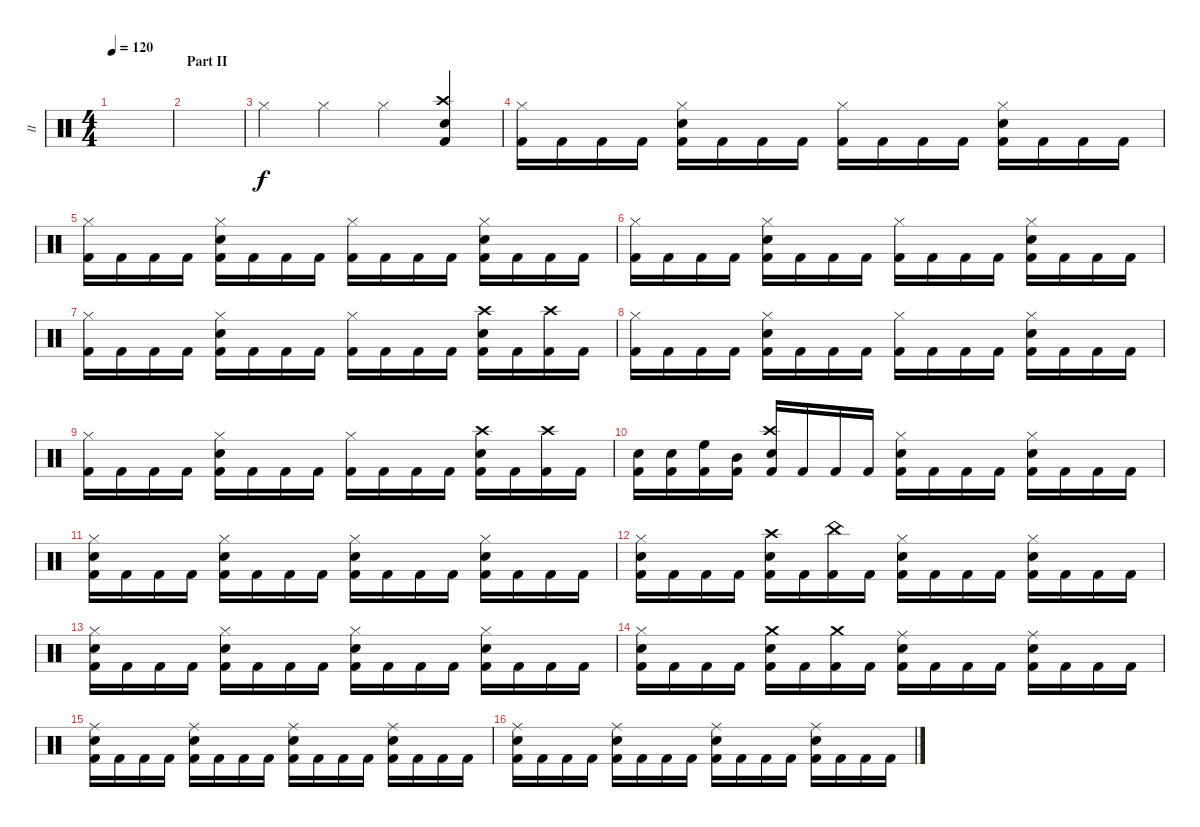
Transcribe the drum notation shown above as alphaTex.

\track ("II" "II") {instrument percussion}
\staff {score}
\articulation defaults
\ts (4 4)
\tempo 120
\clef neutral
\ks c
|
\section ("" "Part II")
|
"Hi-Hat (closed)".4 "Hi-Hat (closed)".4 "Hi-Hat (closed)".4 ("Kick (hit) 2" "Crash high (hit)" "Snare (hit) 2").4 |
("Kick (hit) 2" "Hi-Hat (closed)").16 "Kick (hit) 2".16 "Kick (hit) 2".16 "Kick (hit) 2".16 ("Kick (hit) 2" "Hi-Hat (closed)" "Snare (hit) 2").16 "Kick (hit) 2".16 "Kick (hit) 2".16 "Kick (hit) 2".16 ("Kick (hit) 2" "Hi-Hat (closed)").16 "Kick (hit) 2".16 "Kick (hit) 2".16 "Kick (hit) 2".16 ("Kick (hit) 2" "Hi-Hat (closed)" "Snare (hit) 2").16 "Kick (hit) 2".16 "Kick (hit) 2".16 "Kick (hit) 2".16 |
("Kick (hit) 2" "Hi-Hat (closed)").16 "Kick (hit) 2".16 "Kick (hit) 2".16 "Kick (hit) 2".16 ("Kick (hit) 2" "Hi-Hat (closed)" "Snare (hit) 2").16 "Kick (hit) 2".16 "Kick (hit) 2".16 "Kick (hit) 2".16 ("Kick (hit) 2" "Hi-Hat (closed)").16 "Kick (hit) 2".16 "Kick (hit) 2".16 "Kick (hit) 2".16 ("Kick (hit) 2" "Hi-Hat (closed)" "Snare (hit) 2").16 "Kick (hit) 2".16 "Kick (hit) 2".16 "Kick (hit) 2".16 |
("Kick (hit) 2" "Hi-Hat (closed)").16 "Kick (hit) 2".16 "Kick (hit) 2".16 "Kick (hit) 2".16 ("Kick (hit) 2" "Hi-Hat (closed)" "Snare (hit) 2").16 "Kick (hit) 2".16 "Kick (hit) 2".16 "Kick (hit) 2".16 ("Kick (hit) 2" "Hi-Hat (closed)").16 "Kick (hit) 2".16 "Kick (hit) 2".16 "Kick (hit) 2".16 ("Kick (hit) 2" "Hi-Hat (closed)" "Snare (hit) 2").16 "Kick (hit) 2".16 "Kick (hit) 2".16 "Kick (hit) 2".16 |
("Kick (hit) 2" "Hi-Hat (closed)").16 "Kick (hit) 2".16 "Kick (hit) 2".16 "Kick (hit) 2".16 ("Kick (hit) 2" "Hi-Hat (closed)" "Snare (hit) 2").16 "Kick (hit) 2".16 "Kick (hit) 2".16 "Kick (hit) 2".16 ("Kick (hit) 2" "Hi-Hat (closed)").16 "Kick (hit) 2".16 "Kick (hit) 2".16 "Kick (hit) 2".16 ("Kick (hit) 2" "Crash high (hit)" "Snare (hit) 2").16 "Kick (hit) 2".16 ("Kick (hit) 2" "Crash high (hit)").16 "Kick (hit) 2".16 |
("Kick (hit) 2" "Hi-Hat (closed)").16 "Kick (hit) 2".16 "Kick (hit) 2".16 "Kick (hit) 2".16 ("Kick (hit) 2" "Hi-Hat (closed)" "Snare (hit) 2").16 "Kick (hit) 2".16 "Kick (hit) 2".16 "Kick (hit) 2".16 ("Kick (hit) 2" "Hi-Hat (closed)").16 "Kick (hit) 2".16 "Kick (hit) 2".16 "Kick (hit) 2".16 ("Kick (hit) 2" "Hi-Hat (closed)" "Snare (hit) 2").16 "Kick (hit) 2".16 "Kick (hit) 2".16 "Kick (hit) 2".16 |
("Kick (hit) 2" "Hi-Hat (closed)").16 "Kick (hit) 2".16 "Kick (hit) 2".16 "Kick (hit) 2".16 ("Kick (hit) 2" "Hi-Hat (closed)" "Snare (hit) 2").16 "Kick (hit) 2".16 "Kick (hit) 2".16 "Kick (hit) 2".16 ("Kick (hit) 2" "Hi-Hat (closed)").16 "Kick (hit) 2".16 "Kick (hit) 2".16 "Kick (hit) 2".16 ("Kick (hit) 2" "Crash high (hit)" "Snare (hit) 2").16 "Kick (hit) 2".16 ("Kick (hit) 2" "Crash high (hit)").16 "Kick (hit) 2".16 |
("Kick (hit) 2" "Snare (hit) 2").16 ("Kick (hit) 2" "Snare (hit) 2").16 ("Kick (hit) 2" "High Floor Tom (hit)").16 ("Kick (hit) 2" "Mid Tom (hit)").16 ("Kick (hit) 2" "Crash high (hit)" "Snare (hit) 2").16 "Kick (hit) 2".16 "Kick (hit) 2".16 "Kick (hit) 2".16 ("Kick (hit) 2" "Hi-Hat (closed)" "Snare (hit) 2").16 "Kick (hit) 2".16 "Kick (hit) 2".16 "Kick (hit) 2".16 ("Kick (hit) 2" "Hi-Hat (closed)" "Snare (hit) 2").16 "Kick (hit) 2".16 "Kick (hit) 2".16 "Kick (hit) 2".16 |
("Kick (hit) 2" "Hi-Hat (closed)" "Snare (hit) 2").16 "Kick (hit) 2".16 "Kick (hit) 2".16 "Kick (hit) 2".16 ("Kick (hit) 2" "Hi-Hat (closed)" "Snare (hit) 2").16 "Kick (hit) 2".16 "Kick (hit) 2".16 "Kick (hit) 2".16 ("Kick (hit) 2" "Hi-Hat (closed)" "Snare (hit) 2").16 "Kick (hit) 2".16 "Kick (hit) 2".16 "Kick (hit) 2".16 ("Kick (hit) 2" "Hi-Hat (closed)" "Snare (hit) 2").16 "Kick (hit) 2".16 "Kick (hit) 2".16 "Kick (hit) 2".16 |
("Kick (hit) 2" "Hi-Hat (closed)" "Snare (hit) 2").16 "Kick (hit) 2".16 "Kick (hit) 2".16 "Kick (hit) 2".16 ("Kick (hit) 2" "Crash high (hit)" "Snare (hit) 2").16 "Kick (hit) 2".16 ("Kick (hit) 2" "China (hit)").16 "Kick (hit) 2".16 ("Kick (hit) 2" "Hi-Hat (closed)" "Snare (hit) 2").16 "Kick (hit) 2".16 "Kick (hit) 2".16 "Kick (hit) 2".16 ("Kick (hit) 2" "Hi-Hat (closed)" "Snare (hit) 2").16 "Kick (hit) 2".16 "Kick (hit) 2".16 "Kick (hit) 2".16 |
("Kick (hit) 2" "Hi-Hat (closed)" "Snare (hit) 2").16 "Kick (hit) 2".16 "Kick (hit) 2".16 "Kick (hit) 2".16 ("Kick (hit) 2" "Hi-Hat (closed)" "Snare (hit) 2").16 "Kick (hit) 2".16 "Kick (hit) 2".16 "Kick (hit) 2".16 ("Kick (hit) 2" "Hi-Hat (closed)" "Snare (hit) 2").16 "Kick (hit) 2".16 "Kick (hit) 2".16 "Kick (hit) 2".16 ("Kick (hit) 2" "Hi-Hat (closed)" "Snare (hit) 2").16 "Kick (hit) 2".16 "Kick (hit) 2".16 "Kick (hit) 2".16 |
("Kick (hit) 2" "Hi-Hat (closed)" "Snare (hit) 2").16 "Kick (hit) 2".16 "Kick (hit) 2".16 "Kick (hit) 2".16 ("Kick (hit) 2" "Crash medium (hit)" "Snare (hit) 2").16 "Kick (hit) 2".16 ("Kick (hit) 2" "Crash medium (hit)").16 "Kick (hit) 2".16 ("Kick (hit) 2" "Ride (middle)" "Snare (hit) 2").16 "Kick (hit) 2".16 "Kick (hit) 2".16 "Kick (hit) 2".16 ("Kick (hit) 2" "Ride (middle)" "Snare (hit) 2").16 "Kick (hit) 2".16 "Kick (hit) 2".16 "Kick (hit) 2".16 |
("Kick (hit) 2" "Ride (middle)" "Snare (hit) 2").16 "Kick (hit) 2".16 "Kick (hit) 2".16 "Kick (hit) 2".16 ("Kick (hit) 2" "Ride (middle)" "Snare (hit) 2").16 "Kick (hit) 2".16 "Kick (hit) 2".16 "Kick (hit) 2".16 ("Kick (hit) 2" "Ride (middle)" "Snare (hit) 2").16 "Kick (hit) 2".16 "Kick (hit) 2".16 "Kick (hit) 2".16 ("Kick (hit) 2" "Ride (middle)" "Snare (hit) 2").16 "Kick (hit) 2".16 "Kick (hit) 2".16 "Kick (hit) 2".16 |
("Kick (hit) 2" "Ride (middle)" "Snare (hit) 2").16 "Kick (hit) 2".16 "Kick (hit) 2".16 "Kick (hit) 2".16 ("Kick (hit) 2" "Ride (middle)" "Snare (hit) 2").16 "Kick (hit) 2".16 "Kick (hit) 2".16 "Kick (hit) 2".16 ("Kick (hit) 2" "Ride (middle)" "Snare (hit) 2").16 "Kick (hit) 2".16 "Kick (hit) 2".16 "Kick (hit) 2".16 ("Kick (hit) 2" "Ride (middle)" "Snare (hit) 2").16 "Kick (hit) 2".16 "Kick (hit) 2".16 "Kick (hit) 2".16
